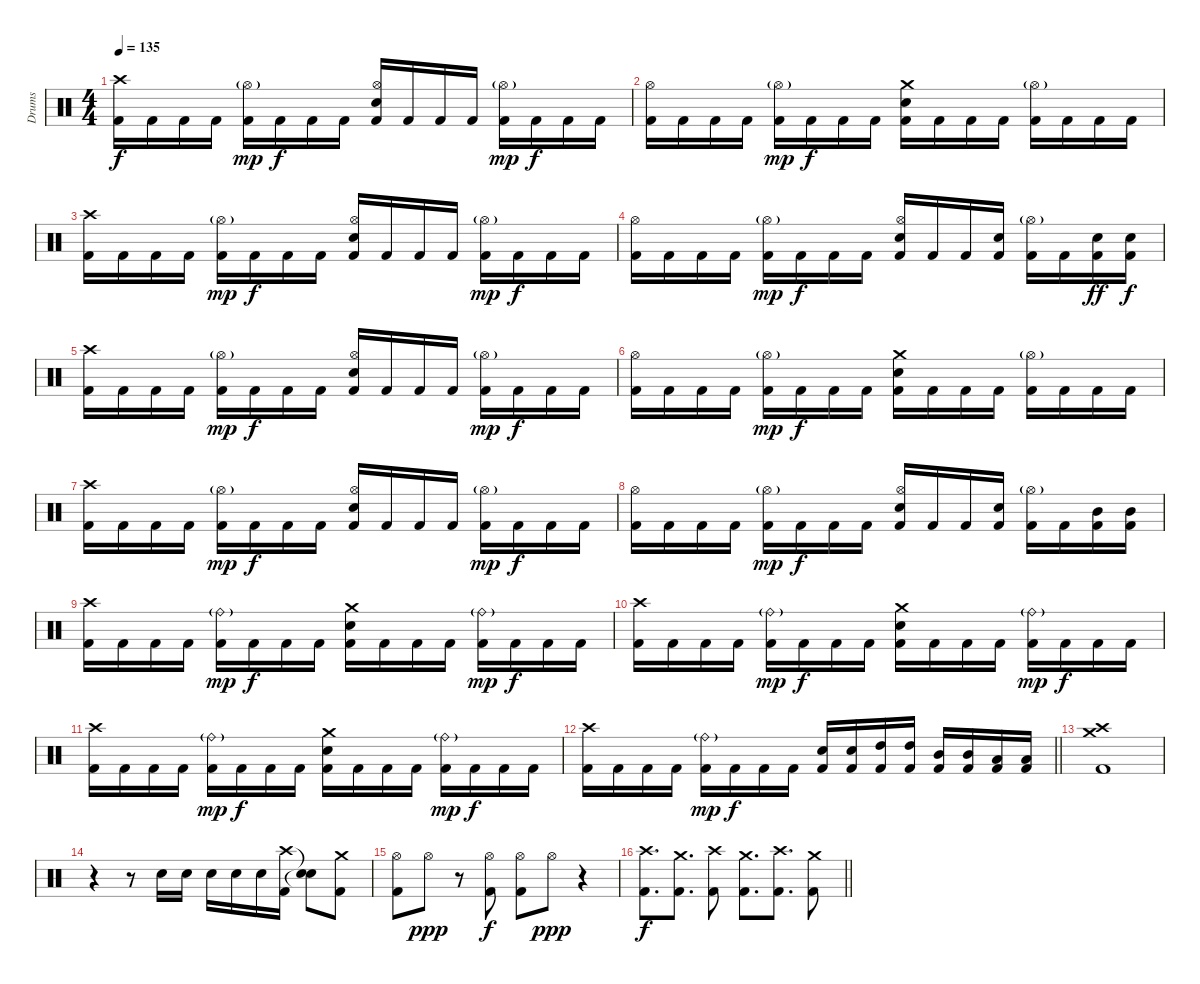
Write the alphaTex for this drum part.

\track ("Drums" "Drums") {instrument percussion}
\staff {score}
\articulation defaults
\ts (4 4)
\tempo 135
\clef neutral
\ks c
("Crash high (hit)" "Kick (hit) 2").16{dy f} "Kick (hit) 2".16 "Kick (hit) 2".16 "Kick (hit) 2".16 ("Hi-Hat (open)"{g} "Kick (hit) 2").16{dy mp} "Kick (hit) 2".16{dy f} "Kick (hit) 2".16 "Kick (hit) 2".16 ("Hi-Hat (open)" "Electric Snare (hit)" "Kick (hit) 2").16 "Kick (hit) 2".16 "Kick (hit) 2".16 "Kick (hit) 2".16 ("Hi-Hat (open)"{g} "Kick (hit) 2").16{dy mp} "Kick (hit) 2".16{dy f} "Kick (hit) 2".16 "Kick (hit) 2".16 |
("Hi-Hat (open)" "Kick (hit) 2").16 "Kick (hit) 2".16 "Kick (hit) 2".16 "Kick (hit) 2".16 ("Hi-Hat (open)"{g} "Kick (hit) 2").16{dy mp} "Kick (hit) 2".16{dy f} "Kick (hit) 2".16 "Kick (hit) 2".16 ("Crash medium (hit)" "Electric Snare (hit)" "Kick (hit) 2").16 "Kick (hit) 2".16 "Kick (hit) 2".16 "Kick (hit) 2".16 ("Hi-Hat (open)"{g} "Kick (hit) 2").16 "Kick (hit) 2".16 "Kick (hit) 2".16 "Kick (hit) 2".16 |
("Crash high (hit)" "Kick (hit) 2").16 "Kick (hit) 2".16 "Kick (hit) 2".16 "Kick (hit) 2".16 ("Hi-Hat (open)"{g} "Kick (hit) 2").16{dy mp} "Kick (hit) 2".16{dy f} "Kick (hit) 2".16 "Kick (hit) 2".16 ("Hi-Hat (open)" "Electric Snare (hit)" "Kick (hit) 2").16 "Kick (hit) 2".16 "Kick (hit) 2".16 "Kick (hit) 2".16 ("Hi-Hat (open)"{g} "Kick (hit) 2").16{dy mp} "Kick (hit) 2".16{dy f} "Kick (hit) 2".16 "Kick (hit) 2".16 |
("Hi-Hat (open)" "Kick (hit) 2").16 "Kick (hit) 2".16 "Kick (hit) 2".16 "Kick (hit) 2".16 ("Hi-Hat (open)"{g} "Kick (hit) 2").16{dy mp} "Kick (hit) 2".16{dy f} "Kick (hit) 2".16 "Kick (hit) 2".16 ("Hi-Hat (open)" "Electric Snare (hit)" "Kick (hit) 2").16 "Kick (hit) 2".16 "Kick (hit) 2".16 ("Electric Snare (hit)" "Kick (hit) 2").16 ("Hi-Hat (open)"{g} "Kick (hit) 2").16 "Kick (hit) 2".16 ("Electric Snare (hit)" "Kick (hit) 2").16{dy ff} ("Electric Snare (hit)" "Kick (hit) 2").16{dy f} |
("Crash high (hit)" "Kick (hit) 2").16 "Kick (hit) 2".16 "Kick (hit) 2".16 "Kick (hit) 2".16 ("Hi-Hat (open)"{g} "Kick (hit) 2").16{dy mp} "Kick (hit) 2".16{dy f} "Kick (hit) 2".16 "Kick (hit) 2".16 ("Hi-Hat (open)" "Electric Snare (hit)" "Kick (hit) 2").16 "Kick (hit) 2".16 "Kick (hit) 2".16 "Kick (hit) 2".16 ("Hi-Hat (open)"{g} "Kick (hit) 2").16{dy mp} "Kick (hit) 2".16{dy f} "Kick (hit) 2".16 "Kick (hit) 2".16 |
("Hi-Hat (open)" "Kick (hit) 2").16 "Kick (hit) 2".16 "Kick (hit) 2".16 "Kick (hit) 2".16 ("Hi-Hat (open)"{g} "Kick (hit) 2").16{dy mp} "Kick (hit) 2".16{dy f} "Kick (hit) 2".16 "Kick (hit) 2".16 ("Crash medium (hit)" "Electric Snare (hit)" "Kick (hit) 2").16 "Kick (hit) 2".16 "Kick (hit) 2".16 "Kick (hit) 2".16 ("Hi-Hat (open)"{g} "Kick (hit) 2").16 "Kick (hit) 2".16 "Kick (hit) 2".16 "Kick (hit) 2".16 |
("Crash high (hit)" "Kick (hit) 2").16 "Kick (hit) 2".16 "Kick (hit) 2".16 "Kick (hit) 2".16 ("Hi-Hat (open)"{g} "Kick (hit) 2").16{dy mp} "Kick (hit) 2".16{dy f} "Kick (hit) 2".16 "Kick (hit) 2".16 ("Hi-Hat (open)" "Electric Snare (hit)" "Kick (hit) 2").16 "Kick (hit) 2".16 "Kick (hit) 2".16 "Kick (hit) 2".16 ("Hi-Hat (open)"{g} "Kick (hit) 2").16{dy mp} "Kick (hit) 2".16{dy f} "Kick (hit) 2".16 "Kick (hit) 2".16 |
("Hi-Hat (open)" "Kick (hit) 2").16 "Kick (hit) 2".16 "Kick (hit) 2".16 "Kick (hit) 2".16 ("Hi-Hat (open)"{g} "Kick (hit) 2").16{dy mp} "Kick (hit) 2".16{dy f} "Kick (hit) 2".16 "Kick (hit) 2".16 ("Hi-Hat (open)" "Electric Snare (hit)" "Kick (hit) 2").16 "Kick (hit) 2".16 "Kick (hit) 2".16 ("Electric Snare (hit)" "Kick (hit) 2").16 ("Hi-Hat (open)"{g} "Kick (hit) 2").16 "Kick (hit) 2".16 ("Mid Tom (hit)" "Kick (hit) 2").16 ("Mid Tom (hit)" "Kick (hit) 2").16 |
("Crash high (hit)" "Kick (hit) 2").16 "Kick (hit) 2".16 "Kick (hit) 2".16 "Kick (hit) 2".16 ("Ride (bell)"{g} "Kick (hit) 2").16{dy mp} "Kick (hit) 2".16{dy f} "Kick (hit) 2".16 "Kick (hit) 2".16 ("Crash medium (hit)" "Electric Snare (hit)" "Kick (hit) 2").16 "Kick (hit) 2".16 "Kick (hit) 2".16 "Kick (hit) 2".16 ("Ride (bell)"{g} "Kick (hit) 2").16{dy mp} "Kick (hit) 2".16{dy f} "Kick (hit) 2".16 "Kick (hit) 2".16 |
("Crash high (hit)" "Kick (hit) 2").16 "Kick (hit) 2".16 "Kick (hit) 2".16 "Kick (hit) 2".16 ("Ride (bell)"{g} "Kick (hit) 2").16{dy mp} "Kick (hit) 2".16{dy f} "Kick (hit) 2".16 "Kick (hit) 2".16 ("Crash medium (hit)" "Electric Snare (hit)" "Kick (hit) 2").16 "Kick (hit) 2".16 "Kick (hit) 2".16 "Kick (hit) 2".16 ("Ride (bell)"{g} "Kick (hit) 2").16{dy mp} "Kick (hit) 2".16{dy f} "Kick (hit) 2".16 "Kick (hit) 2".16 |
("Crash high (hit)" "Kick (hit) 2").16 "Kick (hit) 2".16 "Kick (hit) 2".16 "Kick (hit) 2".16 ("Ride (bell)"{g} "Kick (hit) 2").16{dy mp} "Kick (hit) 2".16{dy f} "Kick (hit) 2".16 "Kick (hit) 2".16 ("Crash medium (hit)" "Electric Snare (hit)" "Kick (hit) 2").16 "Kick (hit) 2".16 "Kick (hit) 2".16 "Kick (hit) 2".16 ("Ride (bell)"{g} "Kick (hit) 2").16{dy mp} "Kick (hit) 2".16{dy f} "Kick (hit) 2".16 "Kick (hit) 2".16 |
\barLineRight lightlight
("Crash high (hit)" "Kick (hit) 2").16 "Kick (hit) 2".16 "Kick (hit) 2".16 "Kick (hit) 2".16 ("Ride (bell)"{g} "Kick (hit) 2").16{dy mp} "Kick (hit) 2".16{dy f} "Kick (hit) 2".16 "Kick (hit) 2".16 ("Electric Snare (hit)" "Kick (hit) 2").16 ("Electric Snare (hit)" "Kick (hit) 2").16 ("High Tom (hit)" "Kick (hit) 2").16 ("High Tom (hit)" "Kick (hit) 2").16 ("Mid Tom (hit)" "Kick (hit) 2").16 ("Mid Tom (hit)" "Kick (hit) 2").16 ("Low Tom (hit)" "Kick (hit) 2").16 ("Low Tom (hit)" "Kick (hit) 2").16 |
("Crash high (hit)" "Crash medium (hit)" "Kick (hit) 2").1 |
r.4 r.8 "Electric Snare (hit)".16 "Electric Snare (hit)".16 "Electric Snare (hit)".16 "Electric Snare (hit)".16 "Electric Snare (hit)".16 ("Crash high (hit)" "Kick (hit) 2").16 ("Snare (hit)"{t} "Snare (hit)"{t}).8 ("Crash medium (hit)" "Kick (hit) 2").8 |
("Hi-Hat (open)" "Kick (hit) 2").8 "Hi-Hat (open)".8{dy ppp} r.8 ("Hi-Hat (open)" "Kick (hit) 2").8{dy f} ("Hi-Hat (open)" "Kick (hit) 2").8 "Hi-Hat (open)".8{dy ppp} r.4 |
\barLineRight lightlight
("Crash high (hit)" "Kick (hit) 2").8{d dy f} ("Crash medium (hit)" "Kick (hit) 2").8{d} ("Crash high (hit)" "Kick (hit) 2").8 ("Crash medium (hit)" "Kick (hit) 2").8{d} ("Crash high (hit)" "Kick (hit) 2").8{d} ("Crash medium (hit)" "Kick (hit) 2").8
